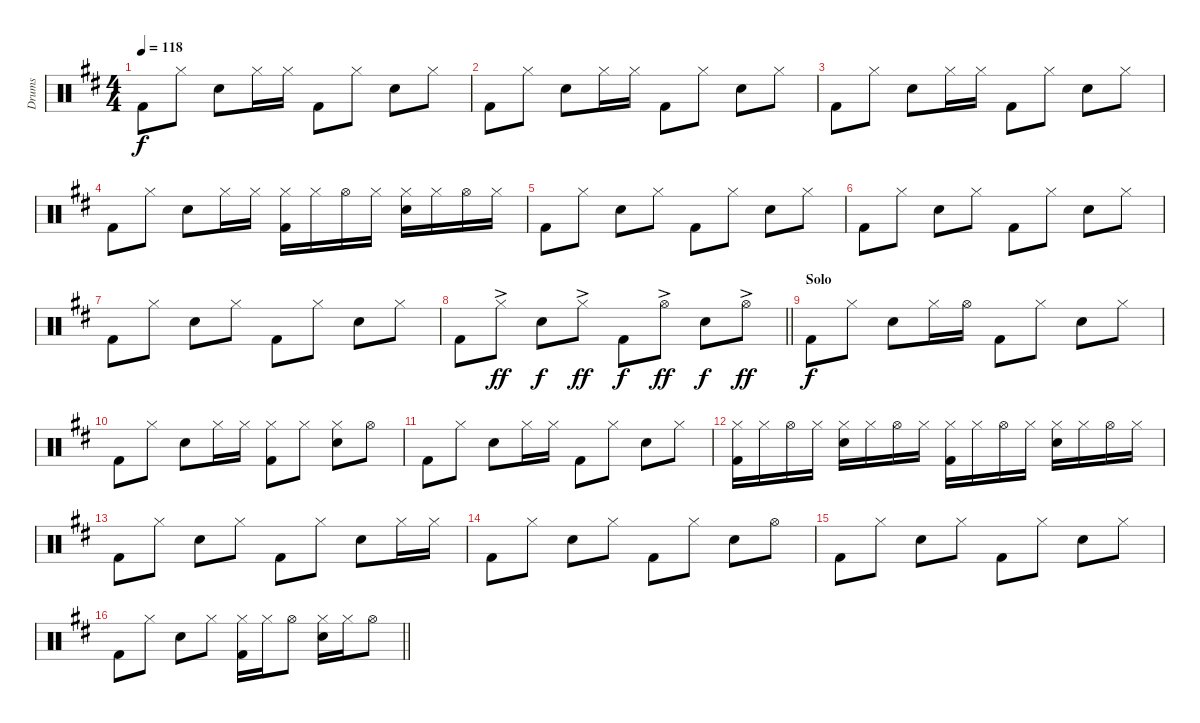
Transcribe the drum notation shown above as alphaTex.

\track ("Drums" "Drums") {instrument percussion}
\staff {score}
\articulation defaults
\ts (4 4)
\tempo 118
\clef neutral
\ks bminor "Kick (hit) 2".8{dy f} "Hi-Hat (closed)".8 "Snare (hit) 2".8 "Hi-Hat (closed)".16 "Hi-Hat (closed)".16 "Kick (hit) 2".8 "Hi-Hat (closed)".8 "Snare (hit) 2".8 "Hi-Hat (closed)".8
|
"Kick (hit) 2".8 "Hi-Hat (closed)".8 "Snare (hit) 2".8 "Hi-Hat (closed)".16 "Hi-Hat (closed)".16 "Kick (hit) 2".8 "Hi-Hat (closed)".8 "Snare (hit) 2".8 "Hi-Hat (closed)".8 |
"Kick (hit) 2".8 "Hi-Hat (closed)".8 "Snare (hit) 2".8 "Hi-Hat (closed)".16 "Hi-Hat (closed)".16 "Kick (hit) 2".8 "Hi-Hat (closed)".8 "Snare (hit) 2".8 "Hi-Hat (closed)".8 |
"Kick (hit) 2".8 "Hi-Hat (closed)".8 "Snare (hit) 2".8 "Hi-Hat (closed)".16 "Hi-Hat (closed)".16 ("Hi-Hat (closed)" "Kick (hit) 2").16 "Hi-Hat (closed)".16 "Hi-Hat (open)".16 "Hi-Hat (closed)".16 ("Hi-Hat (closed)" "Snare (hit) 2").16 "Hi-Hat (closed)".16 "Hi-Hat (open)".16 "Hi-Hat (closed)".16 |
"Kick (hit) 2".8 "Hi-Hat (closed)".8 "Snare (hit) 2".8 "Hi-Hat (closed)".8 "Kick (hit) 2".8 "Hi-Hat (closed)".8 "Snare (hit) 2".8 "Hi-Hat (closed)".8 |
"Kick (hit) 2".8 "Hi-Hat (closed)".8 "Snare (hit) 2".8 "Hi-Hat (closed)".8 "Kick (hit) 2".8 "Hi-Hat (closed)".8 "Snare (hit) 2".8 "Hi-Hat (closed)".8 |
"Kick (hit) 2".8 "Hi-Hat (closed)".8 "Snare (hit) 2".8 "Hi-Hat (closed)".8 "Kick (hit) 2".8 "Hi-Hat (closed)".8 "Snare (hit) 2".8 "Hi-Hat (closed)".8 |
\barLineRight lightlight "Kick (hit) 2".8 "Hi-Hat (closed)"{ac}.8{dy ff} "Snare (hit) 2".8{dy f} "Hi-Hat (closed)"{ac}.8{dy ff} "Kick (hit) 2".8{dy f} "Hi-Hat (open)"{ac}.8{dy ff} "Snare (hit) 2".8{dy f} "Hi-Hat (open)"{ac}.8{dy ff}
|
\section ("" "Solo")
"Kick (hit) 2".8{dy f} "Hi-Hat (closed)".8 "Snare (hit) 2".8 "Hi-Hat (closed)".16 "Hi-Hat (open)".16 "Kick (hit) 2".8 "Hi-Hat (closed)".8 "Snare (hit) 2".8 "Hi-Hat (closed)".8 |
"Kick (hit) 2".8 "Hi-Hat (closed)".8 "Snare (hit) 2".8 "Hi-Hat (closed)".16 "Hi-Hat (closed)".16 ("Hi-Hat (closed)" "Kick (hit) 2").8 "Hi-Hat (closed)".8 ("Hi-Hat (closed)" "Snare (hit) 2").8 "Hi-Hat (open)".8 |
"Kick (hit) 2".8 "Hi-Hat (closed)".8 "Snare (hit) 2".8 "Hi-Hat (closed)".16 "Hi-Hat (closed)".16 "Kick (hit) 2".8 "Hi-Hat (closed)".8 "Snare (hit) 2".8 "Hi-Hat (closed)".8 |
("Hi-Hat (closed)" "Kick (hit) 2").16 "Hi-Hat (closed)".16 "Hi-Hat (open)".16 "Hi-Hat (closed)".16 ("Hi-Hat (closed)" "Snare (hit) 2").16 "Hi-Hat (closed)".16 "Hi-Hat (open)".16 "Hi-Hat (closed)".16 ("Hi-Hat (closed)" "Kick (hit) 2").16 "Hi-Hat (closed)".16 "Hi-Hat (open)".16 "Hi-Hat (closed)".16 ("Hi-Hat (closed)" "Snare (hit) 2").16 "Hi-Hat (closed)".16 "Hi-Hat (open)".16 "Hi-Hat (closed)".16 |
"Kick (hit) 2".8 "Hi-Hat (closed)".8 "Snare (hit) 2".8 "Hi-Hat (closed)".8 "Kick (hit) 2".8 "Hi-Hat (closed)".8 "Snare (hit) 2".8 "Hi-Hat (closed)".16 "Hi-Hat (closed)".16 |
"Kick (hit) 2".8 "Hi-Hat (closed)".8 "Snare (hit) 2".8 "Hi-Hat (closed)".8 "Kick (hit) 2".8 "Hi-Hat (closed)".8 "Snare (hit) 2".8 "Hi-Hat (open)".8 |
"Kick (hit) 2".8 "Hi-Hat (closed)".8 "Snare (hit) 2".8 "Hi-Hat (closed)".8 "Kick (hit) 2".8 "Hi-Hat (closed)".8 "Snare (hit) 2".8 "Hi-Hat (closed)".8 |
\barLineRight lightlight "Kick (hit) 2".8 "Hi-Hat (closed)".8 "Snare (hit) 2".8 "Hi-Hat (closed)".8
("Hi-Hat (closed)" "Kick (hit) 2").16 "Hi-Hat (closed)".16 "Hi-Hat (open)".8 ("Hi-Hat (closed)" "Snare (hit) 2").16 "Hi-Hat (closed)".16 "Hi-Hat (open)".8
